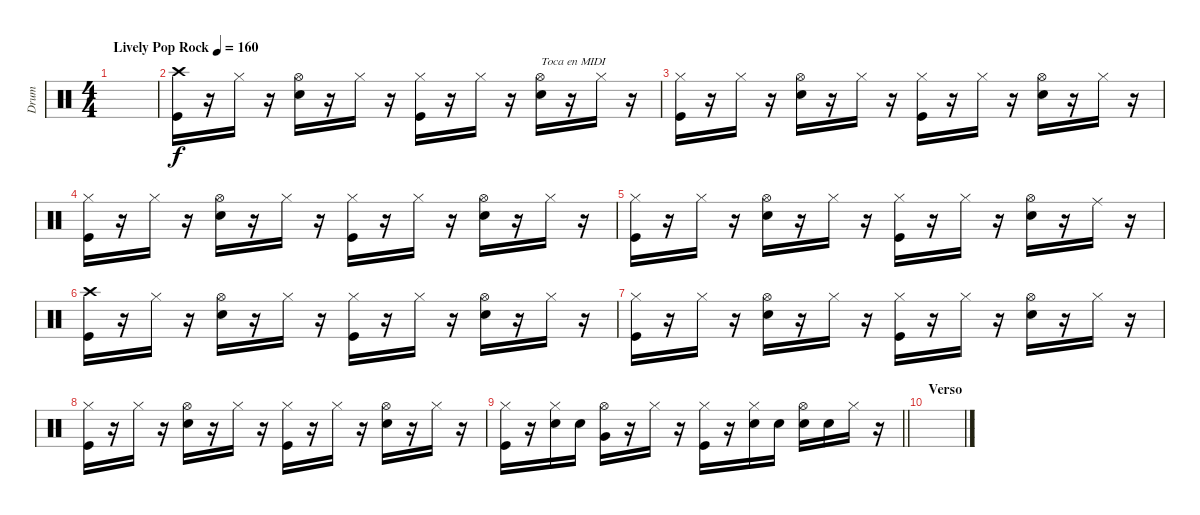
\track ("Drum" "Drum") {instrument percussion}
\staff {score}
\articulation defaults
\ts (4 4)
\tempo (160 "Lively Pop Rock")
\clef neutral
\ks c
|
("Crash high (hit)" "Kick (hit)").16 r.16 "Hi-Hat (closed)".16 r.16 ("Hi-Hat (open)" "Electric Snare (hit)").16 r.16 "Hi-Hat (closed)".16 r.16 ("Hi-Hat (closed)" "Kick (hit)").16 r.16 "Hi-Hat (closed)".16 r.16 ("Hi-Hat (open)" "Electric Snare (hit)").16{txt "Toca en MIDI"} r.16 "Hi-Hat (closed)".16 r.16 |
("Hi-Hat (closed)" "Kick (hit)").16 r.16 "Hi-Hat (closed)".16 r.16 ("Hi-Hat (open)" "Electric Snare (hit)").16 r.16 "Hi-Hat (closed)".16 r.16 ("Hi-Hat (closed)" "Kick (hit)").16 r.16 "Hi-Hat (closed)".16 r.16 ("Hi-Hat (open)" "Electric Snare (hit)").16 r.16 "Hi-Hat (closed)".16 r.16 |
("Hi-Hat (closed)" "Kick (hit)").16 r.16 "Hi-Hat (closed)".16 r.16 ("Hi-Hat (open)" "Electric Snare (hit)").16 r.16 "Hi-Hat (closed)".16 r.16 ("Hi-Hat (closed)" "Kick (hit)").16 r.16 "Hi-Hat (closed)".16 r.16 ("Hi-Hat (open)" "Electric Snare (hit)").16 r.16 "Hi-Hat (closed)".16 r.16 |
("Hi-Hat (closed)" "Kick (hit)").16 r.16 "Hi-Hat (closed)".16 r.16 ("Hi-Hat (open)" "Electric Snare (hit)").16 r.16 "Hi-Hat (closed)".16 r.16 ("Hi-Hat (closed)" "Kick (hit)").16 r.16 "Hi-Hat (closed)".16 r.16 ("Hi-Hat (open)" "Electric Snare (hit)").16 r.16 "Ride (middle)".16 r.16 |
("Crash high (hit)" "Kick (hit)").16 r.16 "Hi-Hat (closed)".16 r.16 ("Hi-Hat (open)" "Electric Snare (hit)").16 r.16 "Hi-Hat (closed)".16 r.16 ("Hi-Hat (closed)" "Kick (hit)").16 r.16 "Hi-Hat (closed)".16 r.16 ("Hi-Hat (open)" "Electric Snare (hit)").16 r.16 "Hi-Hat (closed)".16 r.16 |
("Hi-Hat (closed)" "Kick (hit)").16 r.16 "Hi-Hat (closed)".16 r.16 ("Hi-Hat (open)" "Electric Snare (hit)").16 r.16 "Hi-Hat (closed)".16 r.16 ("Hi-Hat (closed)" "Kick (hit)").16 r.16 "Hi-Hat (closed)".16 r.16 ("Hi-Hat (open)" "Electric Snare (hit)").16 r.16 "Hi-Hat (closed)".16 r.16 |
("Hi-Hat (closed)" "Kick (hit)").16 r.16 "Hi-Hat (closed)".16 r.16 ("Hi-Hat (open)" "Electric Snare (hit)").16 r.16 "Hi-Hat (closed)".16 r.16 ("Hi-Hat (closed)" "Kick (hit)").16 r.16 "Hi-Hat (closed)".16 r.16 ("Hi-Hat (open)" "Electric Snare (hit)").16 r.16 "Hi-Hat (closed)".16 r.16 |
\barLineRight lightlight
("Hi-Hat (closed)" "Kick (hit)").16 r.16 ("Hi-Hat (closed)" "Electric Snare (hit)").16 "Electric Snare (hit)".16 ("Hi-Hat (open)" "Very Low Tom (hit)").16 r.16 "Hi-Hat (closed)".16 r.16 ("Hi-Hat (closed)" "Kick (hit)").16 r.16 ("Hi-Hat (closed)" "Electric Snare (hit)").16 "Electric Snare (hit)".16 ("Hi-Hat (open)" "Electric Snare (hit)").16 "Electric Snare (hit)".16 "Hi-Hat (closed)".16 r.16 |
\section ("" "Verso")
